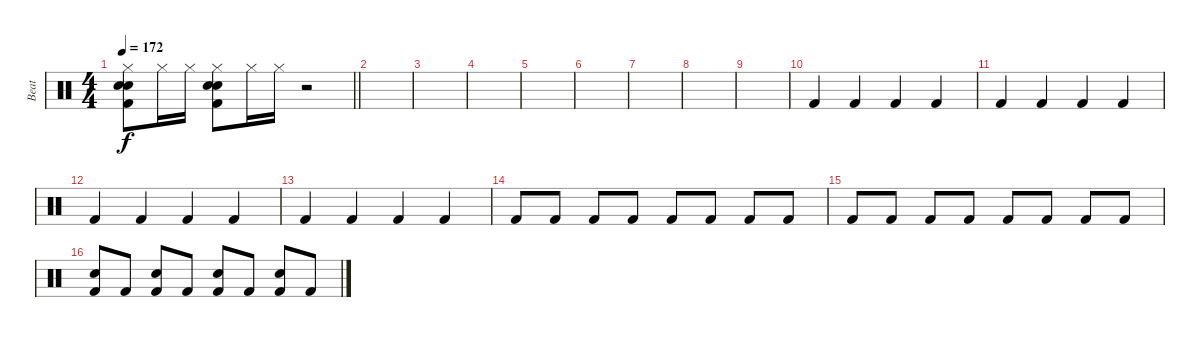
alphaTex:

\track ("Beat" "Beat") {instrument percussion}
\staff {score}
\articulation defaults
\ts (4 4)
\tempo 172
\clef neutral
\barLineRight lightlight
\ks c
("Kick (hit) 2" "Hi-Hat (closed)" "Snare (hit) 2" "Hand Clap (hit)").8{dy f} "Hi-Hat (closed)".16 "Hi-Hat (closed)".16 ("Kick (hit) 2" "Hi-Hat (closed)" "Snare (hit) 2" "Hand Clap (hit)").8 "Hi-Hat (closed)".16 "Hi-Hat (closed)".16 r.2 |
\section ("" " ")
|
|
|
|
|
|
|
|
"Kick (hit) 2".4 "Kick (hit) 2".4 "Kick (hit) 2".4 "Kick (hit) 2".4 |
"Kick (hit) 2".4 "Kick (hit) 2".4 "Kick (hit) 2".4 "Kick (hit) 2".4 |
"Kick (hit) 2".4 "Kick (hit) 2".4 "Kick (hit) 2".4 "Kick (hit) 2".4 |
"Kick (hit) 2".4 "Kick (hit) 2".4 "Kick (hit) 2".4 "Kick (hit) 2".4 |
"Kick (hit) 2".8 "Kick (hit) 2".8 "Kick (hit) 2".8 "Kick (hit) 2".8 "Kick (hit) 2".8 "Kick (hit) 2".8 "Kick (hit) 2".8 "Kick (hit) 2".8 |
"Kick (hit) 2".8 "Kick (hit) 2".8 "Kick (hit) 2".8 "Kick (hit) 2".8 "Kick (hit) 2".8 "Kick (hit) 2".8 "Kick (hit) 2".8 "Kick (hit) 2".8 |
("Kick (hit) 2" "Hand Clap (hit)").8 "Kick (hit) 2".8 ("Kick (hit) 2" "Hand Clap (hit)").8 "Kick (hit) 2".8 ("Kick (hit) 2" "Hand Clap (hit)").8 "Kick (hit) 2".8 ("Kick (hit) 2" "Hand Clap (hit)").8 "Kick (hit) 2".8
